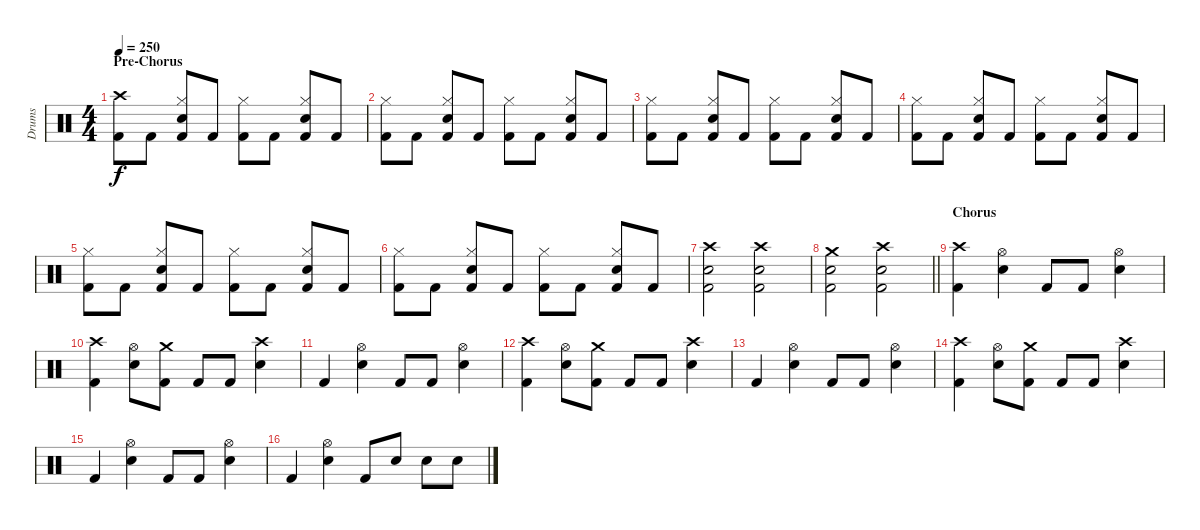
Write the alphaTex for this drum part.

\track ("Drums" "Drums") {instrument percussion}
\staff {score}
\articulation defaults
\ts (4 4)
\section ("" "Pre-Chorus")
\tempo 250
\clef neutral
\ks c
("Crash high (hit)" "Kick (hit) 2").8{dy f} "Kick (hit) 2".8 ("Hi-Hat (closed)" "Snare (hit) 2" "Kick (hit) 2").8 "Kick (hit) 2".8 ("Hi-Hat (closed)" "Kick (hit) 2").8 "Kick (hit) 2".8 ("Hi-Hat (closed)" "Snare (hit) 2" "Kick (hit) 2").8 "Kick (hit) 2".8 |
("Hi-Hat (closed)" "Kick (hit) 2").8 "Kick (hit) 2".8 ("Hi-Hat (closed)" "Snare (hit) 2" "Kick (hit) 2").8 "Kick (hit) 2".8 ("Hi-Hat (closed)" "Kick (hit) 2").8 "Kick (hit) 2".8 ("Hi-Hat (closed)" "Snare (hit) 2" "Kick (hit) 2").8 "Kick (hit) 2".8 |
("Hi-Hat (closed)" "Kick (hit) 2").8 "Kick (hit) 2".8 ("Hi-Hat (closed)" "Snare (hit) 2" "Kick (hit) 2").8 "Kick (hit) 2".8 ("Hi-Hat (closed)" "Kick (hit) 2").8 "Kick (hit) 2".8 ("Hi-Hat (closed)" "Snare (hit) 2" "Kick (hit) 2").8 "Kick (hit) 2".8 |
("Hi-Hat (closed)" "Kick (hit) 2").8 "Kick (hit) 2".8 ("Hi-Hat (closed)" "Snare (hit) 2" "Kick (hit) 2").8 "Kick (hit) 2".8 ("Hi-Hat (closed)" "Kick (hit) 2").8 "Kick (hit) 2".8 ("Hi-Hat (closed)" "Snare (hit) 2" "Kick (hit) 2").8 "Kick (hit) 2".8 |
("Hi-Hat (closed)" "Kick (hit) 2").8 "Kick (hit) 2".8 ("Hi-Hat (closed)" "Snare (hit) 2" "Kick (hit) 2").8 "Kick (hit) 2".8 ("Hi-Hat (closed)" "Kick (hit) 2").8 "Kick (hit) 2".8 ("Hi-Hat (closed)" "Snare (hit) 2" "Kick (hit) 2").8 "Kick (hit) 2".8 |
("Hi-Hat (closed)" "Kick (hit) 2").8 "Kick (hit) 2".8 ("Hi-Hat (closed)" "Snare (hit) 2" "Kick (hit) 2").8 "Kick (hit) 2".8 ("Hi-Hat (closed)" "Kick (hit) 2").8 "Kick (hit) 2".8 ("Hi-Hat (closed)" "Snare (hit) 2" "Kick (hit) 2").8 "Kick (hit) 2".8 |
("Crash high (hit)" "Snare (hit) 2" "Kick (hit) 2").2 ("Crash high (hit)" "Snare (hit) 2" "Kick (hit) 2").2 |
\barLineRight lightlight
("Crash medium (hit)" "Snare (hit) 2" "Kick (hit) 2").2 ("Crash high (hit)" "Snare (hit) 2" "Kick (hit) 2").2 |
\section ("" "Chorus")
("Crash high (hit)" "Kick (hit) 2").4 ("Hi-Hat (open)" "Snare (hit) 2").4 "Kick (hit) 2".8 "Kick (hit) 2".8 ("Hi-Hat (open)" "Snare (hit) 2").4 |
("Crash high (hit)" "Kick (hit) 2").4 ("Hi-Hat (open)" "Snare (hit) 2").8 ("Crash medium (hit)" "Kick (hit) 2").8 "Kick (hit) 2".8 "Kick (hit) 2".8 ("Crash high (hit)" "Snare (hit) 2").4 |
"Kick (hit) 2".4 ("Hi-Hat (open)" "Snare (hit) 2").4 "Kick (hit) 2".8 "Kick (hit) 2".8 ("Hi-Hat (open)" "Snare (hit) 2").4 |
("Crash high (hit)" "Kick (hit) 2").4 ("Hi-Hat (open)" "Snare (hit) 2").8 ("Crash medium (hit)" "Kick (hit) 2").8 "Kick (hit) 2".8 "Kick (hit) 2".8 ("Crash high (hit)" "Snare (hit) 2").4 |
"Kick (hit) 2".4 ("Hi-Hat (open)" "Snare (hit) 2").4 "Kick (hit) 2".8 "Kick (hit) 2".8 ("Hi-Hat (open)" "Snare (hit) 2").4 |
("Crash high (hit)" "Kick (hit) 2").4 ("Hi-Hat (open)" "Snare (hit) 2").8 ("Crash medium (hit)" "Kick (hit) 2").8 "Kick (hit) 2".8 "Kick (hit) 2".8 ("Crash high (hit)" "Snare (hit) 2").4 |
"Kick (hit) 2".4 ("Hi-Hat (open)" "Snare (hit) 2").4 "Kick (hit) 2".8 "Kick (hit) 2".8 ("Hi-Hat (open)" "Snare (hit) 2").4 |
"Kick (hit) 2".4 ("Hi-Hat (open)" "Snare (hit) 2").4 "Kick (hit) 2".8 "Snare (hit) 2".8 "Snare (hit) 2".8 "Snare (hit) 2".8
